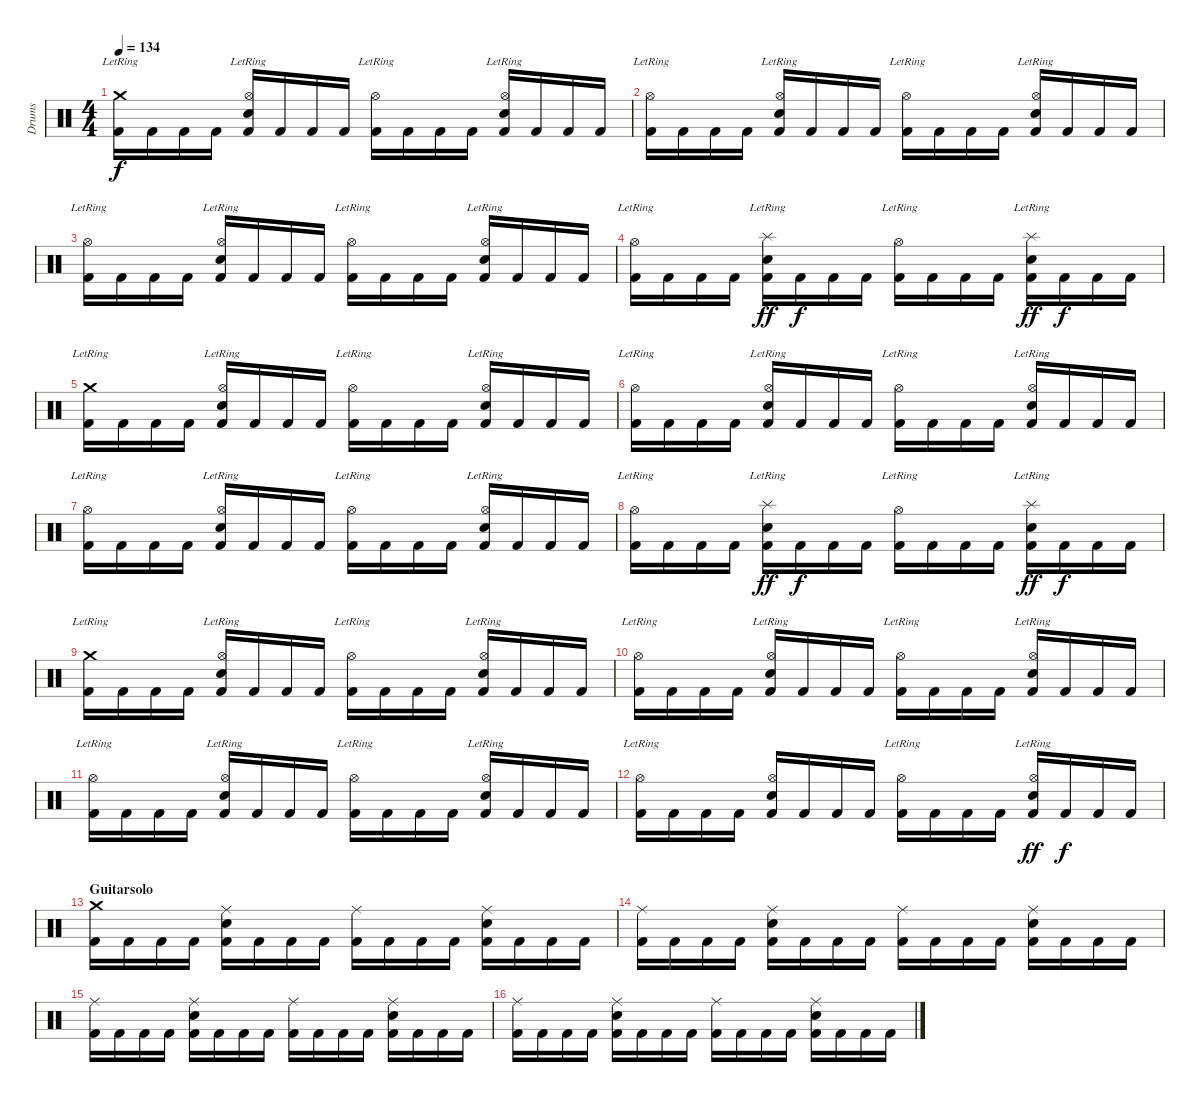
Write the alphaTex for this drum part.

\track ("Drums" "Drums") {instrument percussion}
\staff {score}
\articulation defaults
\ts (4 4)
\tempo 134
\clef neutral
\ks c
("Crash medium (hit)"{lr} "Kick (hit) 2").16{dy f} "Kick (hit) 2".16 "Kick (hit) 2".16 "Kick (hit) 2".16 ("Hi-Hat (open)"{lr} "Snare (hit) 2" "Kick (hit) 2").16 "Kick (hit) 2".16 "Kick (hit) 2".16 "Kick (hit) 2".16 ("Hi-Hat (open)"{lr} "Kick (hit) 2").16 "Kick (hit) 2".16 "Kick (hit) 2".16 "Kick (hit) 2".16 ("Hi-Hat (open)"{lr} "Snare (hit) 2" "Kick (hit) 2").16 "Kick (hit) 2".16 "Kick (hit) 2".16 "Kick (hit) 2".16 |
("Hi-Hat (open)"{lr} "Kick (hit) 2").16 "Kick (hit) 2".16 "Kick (hit) 2".16 "Kick (hit) 2".16 ("Hi-Hat (open)"{lr} "Snare (hit) 2" "Kick (hit) 2").16 "Kick (hit) 2".16 "Kick (hit) 2".16 "Kick (hit) 2".16 ("Hi-Hat (open)"{lr} "Kick (hit) 2").16 "Kick (hit) 2".16 "Kick (hit) 2".16 "Kick (hit) 2".16 ("Hi-Hat (open)"{lr} "Snare (hit) 2" "Kick (hit) 2").16 "Kick (hit) 2".16 "Kick (hit) 2".16 "Kick (hit) 2".16 |
("Hi-Hat (open)"{lr} "Kick (hit) 2").16 "Kick (hit) 2".16 "Kick (hit) 2".16 "Kick (hit) 2".16 ("Hi-Hat (open)"{lr} "Snare (hit) 2" "Kick (hit) 2").16 "Kick (hit) 2".16 "Kick (hit) 2".16 "Kick (hit) 2".16 ("Hi-Hat (open)"{lr} "Kick (hit) 2").16 "Kick (hit) 2".16 "Kick (hit) 2".16 "Kick (hit) 2".16 ("Hi-Hat (open)"{lr} "Snare (hit) 2" "Kick (hit) 2").16 "Kick (hit) 2".16 "Kick (hit) 2".16 "Kick (hit) 2".16 |
("Hi-Hat (open)"{lr} "Kick (hit) 2").16 "Kick (hit) 2".16 "Kick (hit) 2".16 "Kick (hit) 2".16 ("Snare (hit) 2" "Splash (hit)"{lr} "Kick (hit) 2").16{dy ff} "Kick (hit) 2".16{dy f} "Kick (hit) 2".16 "Kick (hit) 2".16 ("Hi-Hat (open)"{lr} "Kick (hit) 2").16 "Kick (hit) 2".16 "Kick (hit) 2".16 "Kick (hit) 2".16 ("Snare (hit) 2" "Splash (hit)"{lr} "Kick (hit) 2").16{dy ff} "Kick (hit) 2".16{dy f} "Kick (hit) 2".16 "Kick (hit) 2".16 |
("Crash medium (hit)"{lr} "Kick (hit) 2").16 "Kick (hit) 2".16 "Kick (hit) 2".16 "Kick (hit) 2".16 ("Hi-Hat (open)"{lr} "Snare (hit) 2" "Kick (hit) 2").16 "Kick (hit) 2".16 "Kick (hit) 2".16 "Kick (hit) 2".16 ("Hi-Hat (open)"{lr} "Kick (hit) 2").16 "Kick (hit) 2".16 "Kick (hit) 2".16 "Kick (hit) 2".16 ("Hi-Hat (open)"{lr} "Snare (hit) 2" "Kick (hit) 2").16 "Kick (hit) 2".16 "Kick (hit) 2".16 "Kick (hit) 2".16 |
("Hi-Hat (open)"{lr} "Kick (hit) 2").16 "Kick (hit) 2".16 "Kick (hit) 2".16 "Kick (hit) 2".16 ("Hi-Hat (open)"{lr} "Snare (hit) 2" "Kick (hit) 2").16 "Kick (hit) 2".16 "Kick (hit) 2".16 "Kick (hit) 2".16 ("Hi-Hat (open)"{lr} "Kick (hit) 2").16 "Kick (hit) 2".16 "Kick (hit) 2".16 "Kick (hit) 2".16 ("Hi-Hat (open)"{lr} "Snare (hit) 2" "Kick (hit) 2").16 "Kick (hit) 2".16 "Kick (hit) 2".16 "Kick (hit) 2".16 |
("Hi-Hat (open)"{lr} "Kick (hit) 2").16 "Kick (hit) 2".16 "Kick (hit) 2".16 "Kick (hit) 2".16 ("Hi-Hat (open)"{lr} "Snare (hit) 2" "Kick (hit) 2").16 "Kick (hit) 2".16 "Kick (hit) 2".16 "Kick (hit) 2".16 ("Hi-Hat (open)"{lr} "Kick (hit) 2").16 "Kick (hit) 2".16 "Kick (hit) 2".16 "Kick (hit) 2".16 ("Hi-Hat (open)"{lr} "Snare (hit) 2" "Kick (hit) 2").16 "Kick (hit) 2".16 "Kick (hit) 2".16 "Kick (hit) 2".16 |
("Hi-Hat (open)"{lr} "Kick (hit) 2").16 "Kick (hit) 2".16 "Kick (hit) 2".16 "Kick (hit) 2".16 ("Snare (hit) 2" "Splash (hit)"{lr} "Kick (hit) 2").16{dy ff} "Kick (hit) 2".16{dy f} "Kick (hit) 2".16 "Kick (hit) 2".16 ("Hi-Hat (open)"{lr} "Kick (hit) 2").16 "Kick (hit) 2".16 "Kick (hit) 2".16 "Kick (hit) 2".16 ("Snare (hit) 2" "Splash (hit)"{lr} "Kick (hit) 2").16{dy ff} "Kick (hit) 2".16{dy f} "Kick (hit) 2".16 "Kick (hit) 2".16 |
("Crash medium (hit)"{lr} "Kick (hit) 2").16 "Kick (hit) 2".16 "Kick (hit) 2".16 "Kick (hit) 2".16 ("Hi-Hat (open)"{lr} "Snare (hit) 2" "Kick (hit) 2").16 "Kick (hit) 2".16 "Kick (hit) 2".16 "Kick (hit) 2".16 ("Hi-Hat (open)"{lr} "Kick (hit) 2").16 "Kick (hit) 2".16 "Kick (hit) 2".16 "Kick (hit) 2".16 ("Hi-Hat (open)"{lr} "Snare (hit) 2" "Kick (hit) 2").16 "Kick (hit) 2".16 "Kick (hit) 2".16 "Kick (hit) 2".16 |
("Hi-Hat (open)"{lr} "Kick (hit) 2").16 "Kick (hit) 2".16 "Kick (hit) 2".16 "Kick (hit) 2".16 ("Hi-Hat (open)"{lr} "Snare (hit) 2" "Kick (hit) 2").16 "Kick (hit) 2".16 "Kick (hit) 2".16 "Kick (hit) 2".16 ("Hi-Hat (open)"{lr} "Kick (hit) 2").16 "Kick (hit) 2".16 "Kick (hit) 2".16 "Kick (hit) 2".16 ("Hi-Hat (open)"{lr} "Snare (hit) 2" "Kick (hit) 2").16 "Kick (hit) 2".16 "Kick (hit) 2".16 "Kick (hit) 2".16 |
("Hi-Hat (open)"{lr} "Kick (hit) 2").16 "Kick (hit) 2".16 "Kick (hit) 2".16 "Kick (hit) 2".16 ("Hi-Hat (open)"{lr} "Snare (hit) 2" "Kick (hit) 2").16 "Kick (hit) 2".16 "Kick (hit) 2".16 "Kick (hit) 2".16 ("Hi-Hat (open)"{lr} "Kick (hit) 2").16 "Kick (hit) 2".16 "Kick (hit) 2".16 "Kick (hit) 2".16 ("Hi-Hat (open)"{lr} "Snare (hit) 2" "Kick (hit) 2").16 "Kick (hit) 2".16 "Kick (hit) 2".16 "Kick (hit) 2".16 |
("Hi-Hat (open)"{lr} "Kick (hit) 2").16 "Kick (hit) 2".16 "Kick (hit) 2".16 "Kick (hit) 2".16 ("Hi-Hat (open)" "Snare (hit) 2" "Kick (hit) 2").16 "Kick (hit) 2".16 "Kick (hit) 2".16 "Kick (hit) 2".16 ("Hi-Hat (open)"{lr} "Kick (hit) 2").16 "Kick (hit) 2".16 "Kick (hit) 2".16 "Kick (hit) 2".16 ("Hi-Hat (open)" "Snare (hit) 2"{lr} "Kick (hit) 2").16{dy ff} "Kick (hit) 2".16{dy f} "Kick (hit) 2".16 "Kick (hit) 2".16 |
\section ("" "Guitarsolo")
("Crash medium (hit)" "Kick (hit) 2").16 "Kick (hit) 2".16 "Kick (hit) 2".16 "Kick (hit) 2".16 ("Ride (middle)" "Snare (hit) 2" "Kick (hit) 2").16 "Kick (hit) 2".16 "Kick (hit) 2".16 "Kick (hit) 2".16 ("Ride (middle)" "Kick (hit) 2").16 "Kick (hit) 2".16 "Kick (hit) 2".16 "Kick (hit) 2".16 ("Ride (middle)" "Snare (hit) 2" "Kick (hit) 2").16 "Kick (hit) 2".16 "Kick (hit) 2".16 "Kick (hit) 2".16 |
("Ride (middle)" "Kick (hit) 2").16 "Kick (hit) 2".16 "Kick (hit) 2".16 "Kick (hit) 2".16 ("Ride (middle)" "Snare (hit) 2" "Kick (hit) 2").16 "Kick (hit) 2".16 "Kick (hit) 2".16 "Kick (hit) 2".16 ("Ride (middle)" "Kick (hit) 2").16 "Kick (hit) 2".16 "Kick (hit) 2".16 "Kick (hit) 2".16 ("Ride (middle)" "Snare (hit) 2" "Kick (hit) 2").16 "Kick (hit) 2".16 "Kick (hit) 2".16 "Kick (hit) 2".16 |
("Ride (middle)" "Kick (hit) 2").16 "Kick (hit) 2".16 "Kick (hit) 2".16 "Kick (hit) 2".16 ("Ride (middle)" "Snare (hit) 2" "Kick (hit) 2").16 "Kick (hit) 2".16 "Kick (hit) 2".16 "Kick (hit) 2".16 ("Ride (middle)" "Kick (hit) 2").16 "Kick (hit) 2".16 "Kick (hit) 2".16 "Kick (hit) 2".16 ("Ride (middle)" "Snare (hit) 2" "Kick (hit) 2").16 "Kick (hit) 2".16 "Kick (hit) 2".16 "Kick (hit) 2".16 |
("Ride (middle)" "Kick (hit) 2").16 "Kick (hit) 2".16 "Kick (hit) 2".16 "Kick (hit) 2".16 ("Ride (middle)" "Snare (hit) 2" "Kick (hit) 2").16 "Kick (hit) 2".16 "Kick (hit) 2".16 "Kick (hit) 2".16 ("Ride (middle)" "Kick (hit) 2").16 "Kick (hit) 2".16 "Kick (hit) 2".16 "Kick (hit) 2".16 ("Ride (middle)" "Snare (hit) 2" "Kick (hit) 2").16 "Kick (hit) 2".16 "Kick (hit) 2".16 "Kick (hit) 2".16
